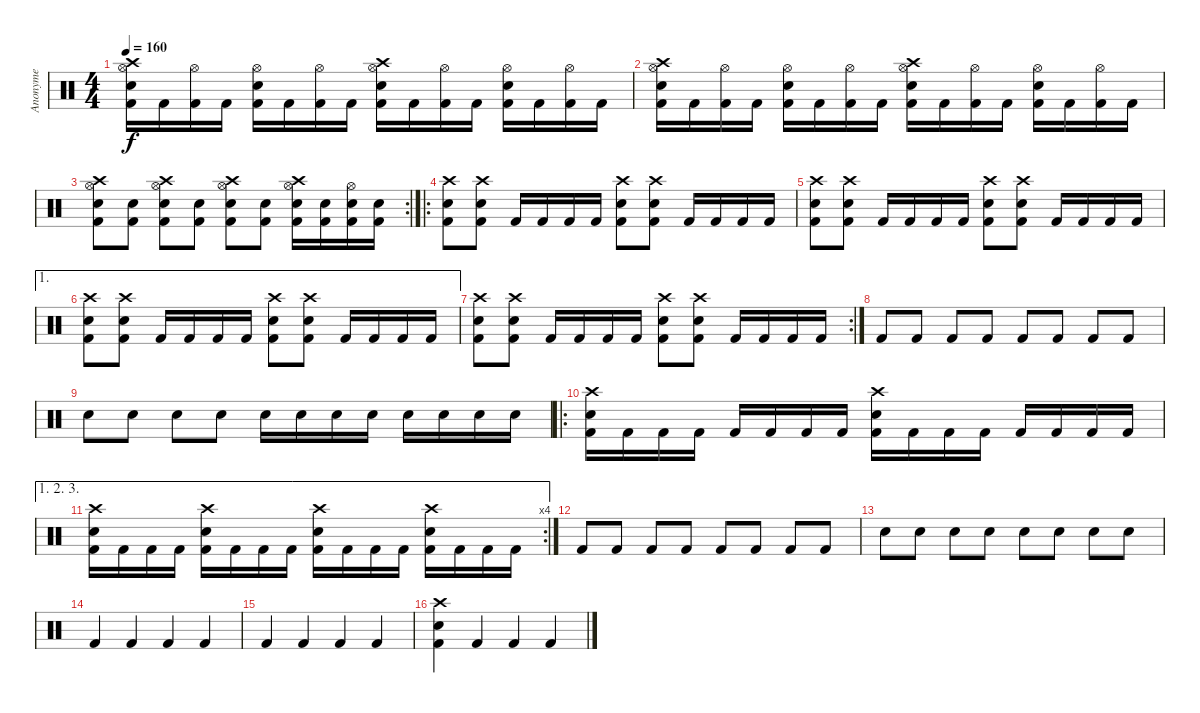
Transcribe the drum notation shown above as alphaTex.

\track ("Anonyme" "Anonyme") {instrument percussion}
\staff {score}
\articulation defaults
\ts (4 4)
\tempo 160
\clef neutral
\ks c
("Crash high (hit)" "Hi-Hat (open)" "Snare (hit) 2" "Kick (hit) 2").16{dy f} "Kick (hit) 2".16 ("Hi-Hat (open)" "Kick (hit) 2").16 "Kick (hit) 2".16 ("Hi-Hat (open)" "Snare (hit) 2" "Kick (hit) 2").16 "Kick (hit) 2".16 ("Hi-Hat (open)" "Kick (hit) 2").16 "Kick (hit) 2".16 ("Crash high (hit)" "Hi-Hat (open)" "Snare (hit) 2" "Kick (hit) 2").16 "Kick (hit) 2".16 ("Hi-Hat (open)" "Kick (hit) 2").16 "Kick (hit) 2".16 ("Hi-Hat (open)" "Snare (hit) 2" "Kick (hit) 2").16 "Kick (hit) 2".16 ("Hi-Hat (open)" "Kick (hit) 2").16 "Kick (hit) 2".16 |
("Crash high (hit)" "Hi-Hat (open)" "Snare (hit) 2" "Kick (hit) 2").16 "Kick (hit) 2".16 ("Hi-Hat (open)" "Kick (hit) 2").16 "Kick (hit) 2".16 ("Hi-Hat (open)" "Snare (hit) 2" "Kick (hit) 2").16 "Kick (hit) 2".16 ("Hi-Hat (open)" "Kick (hit) 2").16 "Kick (hit) 2".16 ("Crash high (hit)" "Hi-Hat (open)" "Snare (hit) 2" "Kick (hit) 2").16 "Kick (hit) 2".16 ("Hi-Hat (open)" "Kick (hit) 2").16 "Kick (hit) 2".16 ("Hi-Hat (open)" "Snare (hit) 2" "Kick (hit) 2").16 "Kick (hit) 2".16 ("Hi-Hat (open)" "Kick (hit) 2").16 "Kick (hit) 2".16 |
\rc 2
("Crash high (hit)" "Hi-Hat (open)" "Snare (hit) 2" "Kick (hit) 2").8 ("Snare (hit) 2" "Kick (hit) 2").8 ("Crash high (hit)" "Hi-Hat (open)" "Snare (hit) 2" "Kick (hit) 2").8 ("Snare (hit) 2" "Kick (hit) 2").8 ("Crash high (hit)" "Hi-Hat (open)" "Snare (hit) 2" "Kick (hit) 2").8 ("Snare (hit) 2" "Kick (hit) 2").8 ("Crash high (hit)" "Hi-Hat (open)" "Snare (hit) 2" "Kick (hit) 2").16 ("Snare (hit) 2" "Kick (hit) 2").16 ("Hi-Hat (open)" "Snare (hit) 2" "Kick (hit) 2").16 ("Snare (hit) 2" "Kick (hit) 2").16 |
\ro
("Crash high (hit)" "Snare (hit) 2" "Kick (hit) 2").8 ("Crash high (hit)" "Snare (hit) 2" "Kick (hit) 2").8 "Kick (hit) 2".16 "Kick (hit) 2".16 "Kick (hit) 2".16 "Kick (hit) 2".16 ("Crash high (hit)" "Snare (hit) 2" "Kick (hit) 2").8 ("Crash high (hit)" "Snare (hit) 2" "Kick (hit) 2").8 "Kick (hit) 2".16 "Kick (hit) 2".16 "Kick (hit) 2".16 "Kick (hit) 2".16 |
("Crash high (hit)" "Snare (hit) 2" "Kick (hit) 2").8 ("Crash high (hit)" "Snare (hit) 2" "Kick (hit) 2").8 "Kick (hit) 2".16 "Kick (hit) 2".16 "Kick (hit) 2".16 "Kick (hit) 2".16 ("Crash high (hit)" "Snare (hit) 2" "Kick (hit) 2").8 ("Crash high (hit)" "Snare (hit) 2" "Kick (hit) 2").8 "Kick (hit) 2".16 "Kick (hit) 2".16 "Kick (hit) 2".16 "Kick (hit) 2".16 |
\ae 1
("Crash high (hit)" "Snare (hit) 2" "Kick (hit) 2").8 ("Crash high (hit)" "Snare (hit) 2" "Kick (hit) 2").8 "Kick (hit) 2".16 "Kick (hit) 2".16 "Kick (hit) 2".16 "Kick (hit) 2".16 ("Crash high (hit)" "Snare (hit) 2" "Kick (hit) 2").8 ("Crash high (hit)" "Snare (hit) 2" "Kick (hit) 2").8 "Kick (hit) 2".16 "Kick (hit) 2".16 "Kick (hit) 2".16 "Kick (hit) 2".16 |
\rc 2
("Crash high (hit)" "Snare (hit) 2" "Kick (hit) 2").8 ("Crash high (hit)" "Snare (hit) 2" "Kick (hit) 2").8 "Kick (hit) 2".16 "Kick (hit) 2".16 "Kick (hit) 2".16 "Kick (hit) 2".16 ("Crash high (hit)" "Snare (hit) 2" "Kick (hit) 2").8 ("Crash high (hit)" "Snare (hit) 2" "Kick (hit) 2").8 "Kick (hit) 2".16 "Kick (hit) 2".16 "Kick (hit) 2".16 "Kick (hit) 2".16 |
"Kick (hit) 2".8 "Kick (hit) 2".8 "Kick (hit) 2".8 "Kick (hit) 2".8 "Kick (hit) 2".8 "Kick (hit) 2".8 "Kick (hit) 2".8 "Kick (hit) 2".8 |
"Snare (hit) 2".8 "Snare (hit) 2".8 "Snare (hit) 2".8 "Snare (hit) 2".8 "Snare (hit) 2".16 "Snare (hit) 2".16 "Snare (hit) 2".16 "Snare (hit) 2".16 "Snare (hit) 2".16 "Snare (hit) 2".16 "Snare (hit) 2".16 "Snare (hit) 2".16 |
\ro
("Crash high (hit)" "Snare (hit) 2" "Kick (hit) 2").16 "Kick (hit) 2".16 "Kick (hit) 2".16 "Kick (hit) 2".16 "Kick (hit) 2".16 "Kick (hit) 2".16 "Kick (hit) 2".16 "Kick (hit) 2".16 ("Crash high (hit)" "Snare (hit) 2" "Kick (hit) 2").16 "Kick (hit) 2".16 "Kick (hit) 2".16 "Kick (hit) 2".16 "Kick (hit) 2".16 "Kick (hit) 2".16 "Kick (hit) 2".16 "Kick (hit) 2".16 |
\ae (1 2 3)
\rc 4
("Crash high (hit)" "Snare (hit) 2" "Kick (hit) 2").16 "Kick (hit) 2".16 "Kick (hit) 2".16 "Kick (hit) 2".16 ("Crash high (hit)" "Snare (hit) 2" "Kick (hit) 2").16 "Kick (hit) 2".16 "Kick (hit) 2".16 "Kick (hit) 2".16 ("Crash high (hit)" "Snare (hit) 2" "Kick (hit) 2").16 "Kick (hit) 2".16 "Kick (hit) 2".16 "Kick (hit) 2".16 ("Crash high (hit)" "Snare (hit) 2" "Kick (hit) 2").16 "Kick (hit) 2".16 "Kick (hit) 2".16 "Kick (hit) 2".16 |
"Kick (hit) 2".8 "Kick (hit) 2".8 "Kick (hit) 2".8 "Kick (hit) 2".8 "Kick (hit) 2".8 "Kick (hit) 2".8 "Kick (hit) 2".8 "Kick (hit) 2".8 |
"Snare (hit) 2".8 "Snare (hit) 2".8 "Snare (hit) 2".8 "Snare (hit) 2".8 "Snare (hit) 2".8 "Snare (hit) 2".8 "Snare (hit) 2".8 "Snare (hit) 2".8 |
"Kick (hit) 2".4 "Kick (hit) 2".4 "Kick (hit) 2".4 "Kick (hit) 2".4 |
"Kick (hit) 2".4 "Kick (hit) 2".4 "Kick (hit) 2".4 "Kick (hit) 2".4 |
("Crash high (hit)" "Snare (hit) 2" "Kick (hit) 2").4 "Kick (hit) 2".4 "Kick (hit) 2".4 "Kick (hit) 2".4
